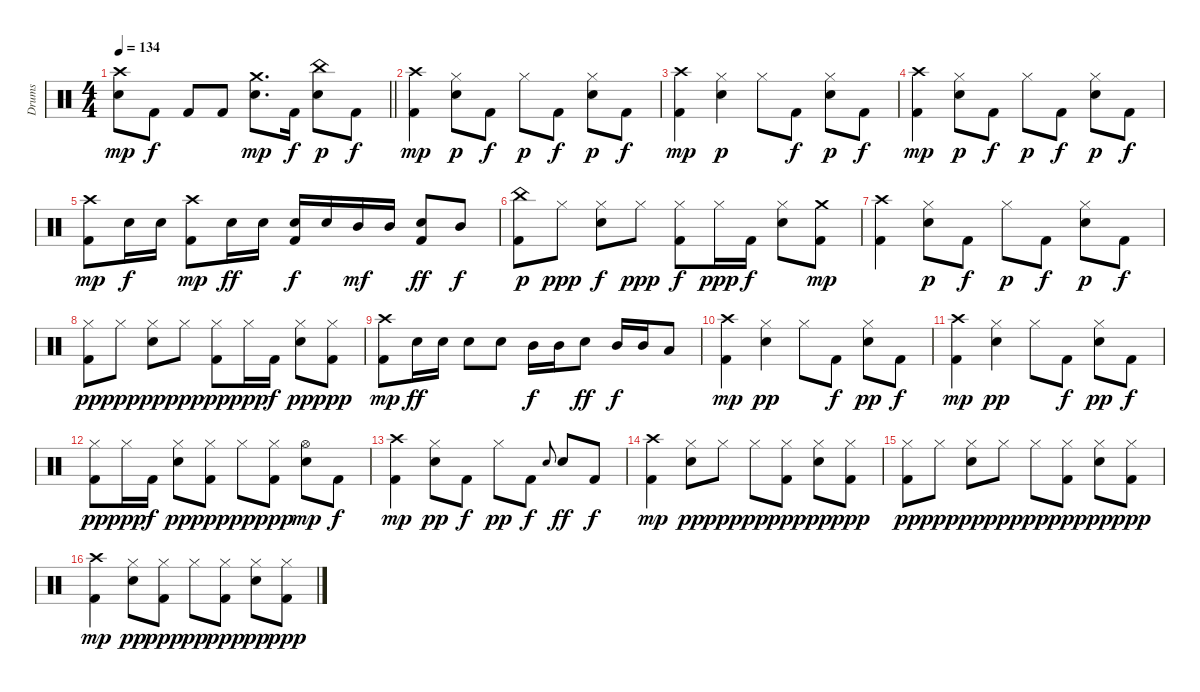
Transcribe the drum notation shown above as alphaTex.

\track ("Drums" "Drums") {instrument percussion}
\staff {score}
\articulation defaults
\ts (4 4)
\tempo 134
\clef neutral
\barLineRight lightlight
\ks aminor
("Electric Snare (hit)" "Crash high (hit)").8{dy mp} "Kick (hit) 2".8{dy f} "Kick (hit) 2".8 "Kick (hit) 2".8 ("Electric Snare (hit)" "Crash medium (hit)").8{d dy mp} "Kick (hit) 2".16{dy f} ("China (hit)" "Electric Snare (hit)").8{dy p} "Kick (hit) 2".8{dy f} |
("Crash high (hit)" "Kick (hit) 2").4{dy mp} ("Hi-Hat (closed)" "Electric Snare (hit)").8{dy p} "Kick (hit) 2".8{dy f} "Hi-Hat (closed)".8{dy p} "Kick (hit) 2".8{dy f} ("Electric Snare (hit)" "Hi-Hat (closed)").8{dy p} "Kick (hit) 2".8{dy f} |
("Crash high (hit)" "Kick (hit) 2").4{dy mp} ("Hi-Hat (closed)" "Electric Snare (hit)").4{dy p} "Hi-Hat (closed)".8 "Kick (hit) 2".8{dy f} ("Electric Snare (hit)" "Hi-Hat (closed)").8{dy p} "Kick (hit) 2".8{dy f} |
("Crash high (hit)" "Kick (hit) 2").4{dy mp} ("Hi-Hat (closed)" "Electric Snare (hit)").8{dy p} "Kick (hit) 2".8{dy f} "Hi-Hat (closed)".8{dy p} "Kick (hit) 2".8{dy f} ("Electric Snare (hit)" "Hi-Hat (closed)").8{dy p} "Kick (hit) 2".8{dy f} |
("Kick (hit) 2" "Crash high (hit)").8{dy mp} "Electric Snare (hit)".16{dy f} "Electric Snare (hit)".16 ("Kick (hit) 2" "Crash high (hit)").8{dy mp} "Electric Snare (hit)".16{dy ff} "Electric Snare (hit)".16 ("Electric Snare (hit)" "Kick (hit) 2").16{dy f} "Electric Snare (hit)".16 "Mid Tom (hit)".16{dy mf} "Mid Tom (hit)".16 ("Electric Snare (hit)" "Kick (hit) 2").8{dy ff} "Mid Tom (hit)".8{dy f} |
("Kick (hit) 2" "China (hit)").8{dy p} "Hi-Hat (closed)".8{dy ppp} ("Electric Snare (hit)" "Hi-Hat (closed)").8{dy f} "Hi-Hat (closed)".8{dy ppp} ("Kick (hit) 2" "Hi-Hat (closed)").8{dy f} "Hi-Hat (closed)".16{dy ppp} "Kick (hit) 2".16{dy f} ("Electric Snare (hit)" "Hi-Hat (closed)").8 ("Kick (hit) 2" "Crash medium (hit)").8{dy mp} |
("Crash high (hit)" "Kick (hit) 2").4 ("Hi-Hat (closed)" "Electric Snare (hit)").8{dy p} "Kick (hit) 2".8{dy f} "Hi-Hat (closed)".8{dy p} "Kick (hit) 2".8{dy f} ("Electric Snare (hit)" "Hi-Hat (closed)").8{dy p} "Kick (hit) 2".8{dy f} |
("Kick (hit) 2" "Hi-Hat (closed)").8{dy pp} "Hi-Hat (closed)".8{dy ppp} ("Electric Snare (hit)" "Hi-Hat (closed)").8{dy pp} "Hi-Hat (closed)".8{dy ppp} ("Kick (hit) 2" "Hi-Hat (closed)").8{dy pp} "Hi-Hat (closed)".16{dy ppp} "Kick (hit) 2".16{dy f} ("Electric Snare (hit)" "Hi-Hat (closed)").8{dy pp} ("Kick (hit) 2" "Hi-Hat (closed)").8{dy ppp} |
("Kick (hit) 2" "Crash high (hit)").8{dy mp} "Electric Snare (hit)".16{dy ff} "Electric Snare (hit)".16 "Electric Snare (hit)".8 "Electric Snare (hit)".8 "Mid Tom (hit)".16{dy f} "Mid Tom (hit)".16 "Electric Snare (hit)".8{dy ff} "Mid Tom (hit)".16{dy f} "Mid Tom (hit)".16 "Low Tom (hit)".8 |
("Crash high (hit)" "Kick (hit) 2").4{dy mp} ("Hi-Hat (closed)" "Electric Snare (hit)").4{dy pp} "Hi-Hat (closed)".8 "Kick (hit) 2".8{dy f} ("Electric Snare (hit)" "Hi-Hat (closed)").8{dy pp} "Kick (hit) 2".8{dy f} |
("Crash high (hit)" "Kick (hit) 2").4{dy mp} ("Hi-Hat (closed)" "Electric Snare (hit)").4{dy pp} "Hi-Hat (closed)".8 "Kick (hit) 2".8{dy f} ("Electric Snare (hit)" "Hi-Hat (closed)").8{dy pp} "Kick (hit) 2".8{dy f} |
("Hi-Hat (closed)" "Kick (hit) 2").8{dy pp} "Hi-Hat (closed)".16{dy ppp} "Kick (hit) 2".16{dy f} ("Hi-Hat (closed)" "Electric Snare (hit)").8{dy pp} ("Kick (hit) 2" "Hi-Hat (closed)").8{dy ppp} "Hi-Hat (closed)".8{dy pp} ("Kick (hit) 2" "Hi-Hat (closed)").8{dy ppp} ("Electric Snare (hit)" "Hi-Hat (open)").8{dy mp} "Kick (hit) 2".8{dy f} |
("Crash high (hit)" "Kick (hit) 2").4{dy mp} ("Hi-Hat (closed)" "Electric Snare (hit)").8{dy pp} "Kick (hit) 2".8{dy f} "Hi-Hat (closed)".8{dy pp} "Kick (hit) 2".8{dy f} "Electric Snare (hit)".8{gr onbeat} "Electric Snare (hit)".8{dy ff} "Kick (hit) 2".8{dy f} |
("Crash high (hit)" "Kick (hit) 2").4{dy mp} ("Hi-Hat (closed)" "Electric Snare (hit)").8{dy pp} "Hi-Hat (closed)".8{dy ppp} "Hi-Hat (closed)".8{dy pp} ("Kick (hit) 2" "Hi-Hat (closed)").8{dy ppp} ("Electric Snare (hit)" "Hi-Hat (closed)").8{dy pp} ("Kick (hit) 2" "Hi-Hat (closed)").8{dy ppp} |
("Hi-Hat (closed)" "Kick (hit) 2").8{dy pp} "Hi-Hat (closed)".8{dy ppp} ("Hi-Hat (closed)" "Electric Snare (hit)").8{dy pp} "Hi-Hat (closed)".8{dy ppp} "Hi-Hat (closed)".8{dy pp} ("Kick (hit) 2" "Hi-Hat (closed)").8{dy ppp} ("Electric Snare (hit)" "Hi-Hat (closed)").8{dy pp} ("Kick (hit) 2" "Hi-Hat (closed)").8{dy ppp} |
("Crash high (hit)" "Kick (hit) 2").4{dy mp} ("Hi-Hat (closed)" "Electric Snare (hit)").8{dy pp} ("Kick (hit) 2" "Hi-Hat (closed)").8{dy ppp} "Hi-Hat (closed)".8{dy pp} ("Kick (hit) 2" "Hi-Hat (closed)").8{dy ppp} ("Electric Snare (hit)" "Hi-Hat (closed)").8{dy pp} ("Kick (hit) 2" "Hi-Hat (closed)").8{dy ppp}
